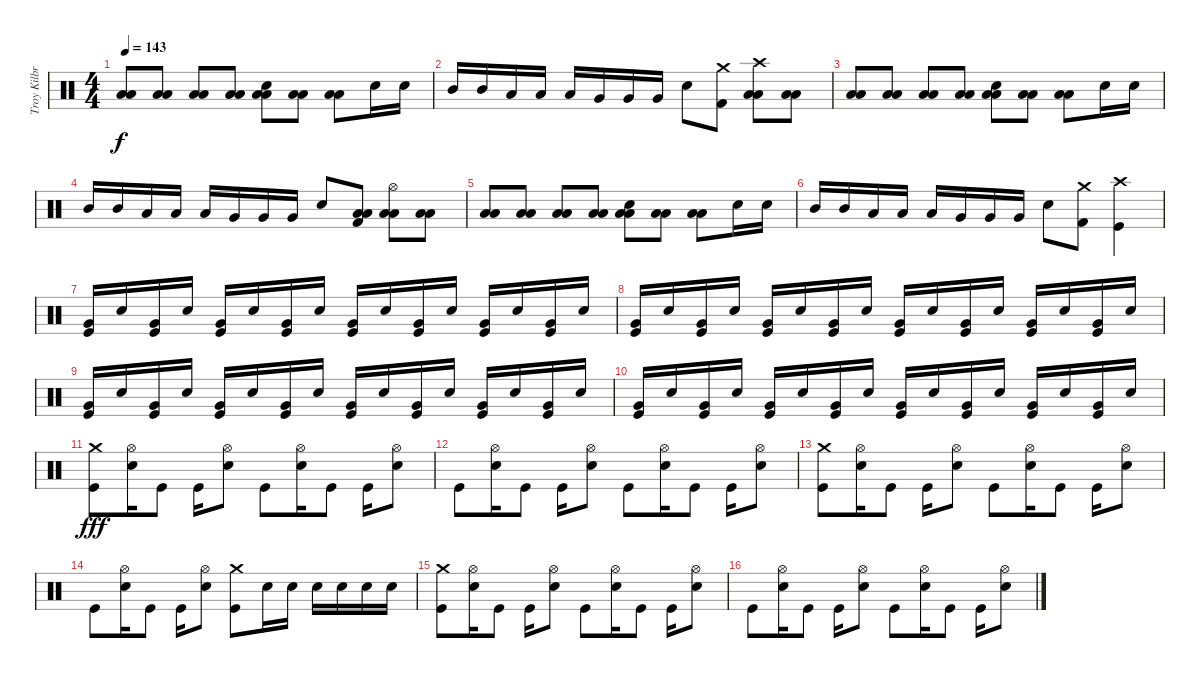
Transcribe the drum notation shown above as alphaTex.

\track ("Troy Kilbride" "Troy Kilbr") {instrument percussion}
\staff {score}
\articulation defaults
\ts (4 4)
\tempo 143
\clef neutral
\ks c
("Low Floor Tom (hit)" "Low Floor Tom (hit)").8{dy f} ("Low Floor Tom (hit)" "Low Floor Tom (hit)").8 ("Low Floor Tom (hit)" "Low Floor Tom (hit)").8 ("Low Floor Tom (hit)" "Low Floor Tom (hit)").8 ("Low Floor Tom (hit)" "Snare (hit) 2" "Low Floor Tom (hit)").8 ("Low Floor Tom (hit)" "Low Floor Tom (hit)").8 ("Low Floor Tom (hit)" "Low Floor Tom (hit)").8 "Snare (hit) 2".16 "Snare (hit) 2".16 |
"Mid Tom (hit)".16 "Mid Tom (hit)".16 "Low Tom (hit)".16 "Low Tom (hit)".16 "Low Tom (hit)".16 "Very Low Tom (hit)".16 "Very Low Tom (hit)".16 "Very Low Tom (hit)".16 "Snare (hit) 2".8 ("Crash medium (hit)" "Kick (hit) 2").8 ("Low Floor Tom (hit)" "Low Floor Tom (hit)" "Crash high (hit)").8 ("Low Floor Tom (hit)" "Low Floor Tom (hit)").8 |
("Low Floor Tom (hit)" "Low Floor Tom (hit)").8 ("Low Floor Tom (hit)" "Low Floor Tom (hit)").8 ("Low Floor Tom (hit)" "Low Floor Tom (hit)").8 ("Low Floor Tom (hit)" "Low Floor Tom (hit)").8 ("Low Floor Tom (hit)" "Snare (hit) 2" "Low Floor Tom (hit)").8 ("Low Floor Tom (hit)" "Low Floor Tom (hit)").8 ("Low Floor Tom (hit)" "Low Floor Tom (hit)").8 "Snare (hit) 2".16 "Snare (hit) 2".16 |
"Mid Tom (hit)".16 "Mid Tom (hit)".16 "Low Tom (hit)".16 "Low Tom (hit)".16 "Low Tom (hit)".16 "Very Low Tom (hit)".16 "Very Low Tom (hit)".16 "Very Low Tom (hit)".16 "Snare (hit) 2".8 ("Low Floor Tom (hit)" "Low Floor Tom (hit)" "Kick (hit) 2").8 ("Low Floor Tom (hit)" "Low Floor Tom (hit)" "Hi-Hat (open)").8 ("Low Floor Tom (hit)" "Low Floor Tom (hit)").8 |
("Low Floor Tom (hit)" "Low Floor Tom (hit)").8 ("Low Floor Tom (hit)" "Low Floor Tom (hit)").8 ("Low Floor Tom (hit)" "Low Floor Tom (hit)").8 ("Low Floor Tom (hit)" "Low Floor Tom (hit)").8 ("Low Floor Tom (hit)" "Snare (hit) 2" "Low Floor Tom (hit)").8 ("Low Floor Tom (hit)" "Low Floor Tom (hit)").8 ("Low Floor Tom (hit)" "Low Floor Tom (hit)").8 "Snare (hit) 2".16 "Snare (hit) 2".16 |
"Mid Tom (hit)".16 "Mid Tom (hit)".16 "Low Tom (hit)".16 "Low Tom (hit)".16 "Low Tom (hit)".16 "Very Low Tom (hit)".16 "Very Low Tom (hit)".16 "Very Low Tom (hit)".16 "Snare (hit) 2".8 ("Crash medium (hit)" "Kick (hit) 2").8 ("Crash high (hit)" "Kick (hit)").4 |
("Very Low Tom (hit)" "Kick (hit)").16 "Electric Snare (hit)".16 ("Very Low Tom (hit)" "Kick (hit)").16 "Electric Snare (hit)".16 ("Very Low Tom (hit)" "Kick (hit)").16 "Electric Snare (hit)".16 ("Very Low Tom (hit)" "Kick (hit)").16 "Electric Snare (hit)".16 ("Very Low Tom (hit)" "Kick (hit)").16 "Electric Snare (hit)".16 ("Very Low Tom (hit)" "Kick (hit)").16 "Electric Snare (hit)".16 ("Very Low Tom (hit)" "Kick (hit)").16 "Electric Snare (hit)".16 ("Very Low Tom (hit)" "Kick (hit)").16 "Electric Snare (hit)".16 |
("Very Low Tom (hit)" "Kick (hit)").16 "Electric Snare (hit)".16 ("Very Low Tom (hit)" "Kick (hit)").16 "Electric Snare (hit)".16 ("Very Low Tom (hit)" "Kick (hit)").16 "Electric Snare (hit)".16 ("Very Low Tom (hit)" "Kick (hit)").16 "Electric Snare (hit)".16 ("Very Low Tom (hit)" "Kick (hit)").16 "Electric Snare (hit)".16 ("Very Low Tom (hit)" "Kick (hit)").16 "Electric Snare (hit)".16 ("Very Low Tom (hit)" "Kick (hit)").16 "Electric Snare (hit)".16 ("Very Low Tom (hit)" "Kick (hit)").16 "Electric Snare (hit)".16 |
("Very Low Tom (hit)" "Kick (hit)").16 "Electric Snare (hit)".16 ("Very Low Tom (hit)" "Kick (hit)").16 "Electric Snare (hit)".16 ("Very Low Tom (hit)" "Kick (hit)").16 "Electric Snare (hit)".16 ("Very Low Tom (hit)" "Kick (hit)").16 "Electric Snare (hit)".16 ("Very Low Tom (hit)" "Kick (hit)").16 "Electric Snare (hit)".16 ("Very Low Tom (hit)" "Kick (hit)").16 "Electric Snare (hit)".16 ("Very Low Tom (hit)" "Kick (hit)").16 "Electric Snare (hit)".16 ("Very Low Tom (hit)" "Kick (hit)").16 "Electric Snare (hit)".16 |
("Very Low Tom (hit)" "Kick (hit)").16 "Electric Snare (hit)".16 ("Very Low Tom (hit)" "Kick (hit)").16 "Electric Snare (hit)".16 ("Very Low Tom (hit)" "Kick (hit)").16 "Electric Snare (hit)".16 ("Very Low Tom (hit)" "Kick (hit)").16 "Electric Snare (hit)".16 ("Very Low Tom (hit)" "Kick (hit)").16 "Electric Snare (hit)".16 ("Very Low Tom (hit)" "Kick (hit)").16 "Electric Snare (hit)".16 ("Very Low Tom (hit)" "Kick (hit)").16 "Electric Snare (hit)".16 ("Very Low Tom (hit)" "Kick (hit)").16 "Electric Snare (hit)".16 |
("Crash medium (hit)" "Kick (hit)").8{dy fff} ("Hi-Hat (open)" "Electric Snare (hit)").16 "Kick (hit)".8 "Kick (hit)".16 ("Hi-Hat (open)" "Electric Snare (hit)").8 "Kick (hit)".8 ("Hi-Hat (open)" "Electric Snare (hit)").16 "Kick (hit)".8 "Kick (hit)".16 ("Hi-Hat (open)" "Electric Snare (hit)").8 |
"Kick (hit)".8 ("Hi-Hat (open)" "Electric Snare (hit)").16 "Kick (hit)".8 "Kick (hit)".16 ("Hi-Hat (open)" "Electric Snare (hit)").8 "Kick (hit)".8 ("Hi-Hat (open)" "Electric Snare (hit)").16 "Kick (hit)".8 "Kick (hit)".16 ("Hi-Hat (open)" "Electric Snare (hit)").8 |
("Crash medium (hit)" "Kick (hit)").8 ("Hi-Hat (open)" "Electric Snare (hit)").16 "Kick (hit)".8 "Kick (hit)".16 ("Hi-Hat (open)" "Electric Snare (hit)").8 "Kick (hit)".8 ("Hi-Hat (open)" "Electric Snare (hit)").16 "Kick (hit)".8 "Kick (hit)".16 ("Hi-Hat (open)" "Electric Snare (hit)").8 |
"Kick (hit)".8 ("Hi-Hat (open)" "Electric Snare (hit)").16 "Kick (hit)".8 "Kick (hit)".16 ("Hi-Hat (open)" "Electric Snare (hit)").8 ("Crash medium (hit)" "Kick (hit)").8 "Electric Snare (hit)".16 "Electric Snare (hit)".16 "Electric Snare (hit)".16 "Electric Snare (hit)".16 "Electric Snare (hit)".16 "Electric Snare (hit)".16 |
("Crash medium (hit)" "Kick (hit)").8 ("Hi-Hat (open)" "Electric Snare (hit)").16 "Kick (hit)".8 "Kick (hit)".16 ("Hi-Hat (open)" "Electric Snare (hit)").8 "Kick (hit)".8 ("Hi-Hat (open)" "Electric Snare (hit)").16 "Kick (hit)".8 "Kick (hit)".16 ("Hi-Hat (open)" "Electric Snare (hit)").8 |
"Kick (hit)".8 ("Hi-Hat (open)" "Electric Snare (hit)").16 "Kick (hit)".8 "Kick (hit)".16 ("Hi-Hat (open)" "Electric Snare (hit)").8 "Kick (hit)".8 ("Hi-Hat (open)" "Electric Snare (hit)").16 "Kick (hit)".8 "Kick (hit)".16 ("Hi-Hat (open)" "Electric Snare (hit)").8
